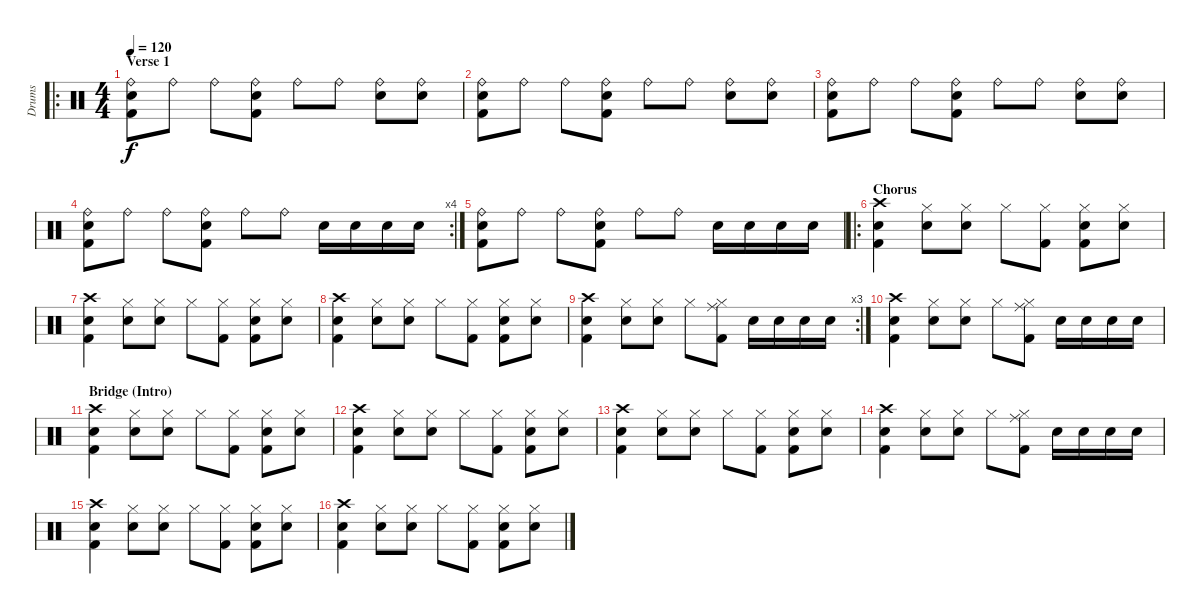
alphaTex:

\track ("Drums" "Drums") {instrument percussion}
\staff {score}
\articulation defaults
\ro
\ts (4 4)
\section ("" "Verse 1")
\tempo 120
\clef neutral
\ks c
("Ride (bell)" "Kick (hit) 2" "Snare (hit) 2").8{dy f} "Ride (bell)".8 "Ride (bell)".8 ("Ride (bell)" "Kick (hit) 2" "Snare (hit) 2").8 "Ride (bell)".8 "Ride (bell)".8 ("Ride (bell)" "Snare (hit) 2").8 ("Ride (bell)" "Snare (hit) 2").8 |
("Ride (bell)" "Kick (hit) 2" "Snare (hit) 2").8 "Ride (bell)".8 "Ride (bell)".8 ("Ride (bell)" "Kick (hit) 2" "Snare (hit) 2").8 "Ride (bell)".8 "Ride (bell)".8 ("Ride (bell)" "Snare (hit) 2").8 ("Ride (bell)" "Snare (hit) 2").8 |
("Ride (bell)" "Kick (hit) 2" "Snare (hit) 2").8 "Ride (bell)".8 "Ride (bell)".8 ("Ride (bell)" "Kick (hit) 2" "Snare (hit) 2").8 "Ride (bell)".8 "Ride (bell)".8 ("Ride (bell)" "Snare (hit) 2").8 ("Ride (bell)" "Snare (hit) 2").8 |
\rc 4
("Ride (bell)" "Kick (hit) 2" "Snare (hit) 2").8 "Ride (bell)".8 "Ride (bell)".8 ("Ride (bell)" "Kick (hit) 2" "Snare (hit) 2").8 "Ride (bell)".8 "Ride (bell)".8 "Snare (hit) 2".16 "Snare (hit) 2".16 "Snare (hit) 2".16 "Snare (hit) 2".16 |
("Ride (bell)" "Kick (hit) 2" "Snare (hit) 2").8 "Ride (bell)".8 "Ride (bell)".8 ("Ride (bell)" "Kick (hit) 2" "Snare (hit) 2").8 "Ride (bell)".8 "Ride (bell)".8 "Snare (hit) 2".16 "Snare (hit) 2".16 "Snare (hit) 2".16 "Snare (hit) 2".16 |
\ro
\section ("" "Chorus")
("Crash high (hit)" "Kick (hit) 2" "Snare (hit) 2").4 ("Hi-Hat (closed)" "Snare (hit) 2").8 ("Hi-Hat (closed)" "Snare (hit) 2").8 "Hi-Hat (closed)".8 ("Hi-Hat (closed)" "Kick (hit) 2").8 ("Hi-Hat (closed)" "Kick (hit) 2" "Snare (hit) 2").8 ("Hi-Hat (closed)" "Snare (hit) 2").8 |
("Crash high (hit)" "Kick (hit) 2" "Snare (hit) 2").4 ("Hi-Hat (closed)" "Snare (hit) 2").8 ("Hi-Hat (closed)" "Snare (hit) 2").8 "Hi-Hat (closed)".8 ("Hi-Hat (closed)" "Kick (hit) 2").8 ("Hi-Hat (closed)" "Kick (hit) 2" "Snare (hit) 2").8 ("Hi-Hat (closed)" "Snare (hit) 2").8 |
("Crash high (hit)" "Kick (hit) 2" "Snare (hit) 2").4 ("Hi-Hat (closed)" "Snare (hit) 2").8 ("Hi-Hat (closed)" "Snare (hit) 2").8 "Hi-Hat (closed)".8 ("Hi-Hat (closed)" "Kick (hit) 2").8 ("Hi-Hat (closed)" "Kick (hit) 2" "Snare (hit) 2").8 ("Hi-Hat (closed)" "Snare (hit) 2").8 |
\rc 3
("Crash high (hit)" "Kick (hit) 2" "Snare (hit) 2").4 ("Hi-Hat (closed)" "Snare (hit) 2").8 ("Hi-Hat (closed)" "Snare (hit) 2").8 "Hi-Hat (closed)".8 ("Ride (middle)" "Hi-Hat (closed)" "Kick (hit) 2").8 "Electric Snare (hit)".16 "Electric Snare (hit)".16 "Electric Snare (hit)".16 "Electric Snare (hit)".16 |
("Crash high (hit)" "Kick (hit) 2" "Snare (hit) 2").4 ("Hi-Hat (closed)" "Snare (hit) 2").8 ("Hi-Hat (closed)" "Snare (hit) 2").8 "Hi-Hat (closed)".8 ("Ride (middle)" "Hi-Hat (closed)" "Kick (hit) 2").8 "Electric Snare (hit)".16 "Electric Snare (hit)".16 "Electric Snare (hit)".16 "Electric Snare (hit)".16 |
\section ("" "Bridge (Intro)")
("Crash high (hit)" "Kick (hit) 2" "Snare (hit) 2").4 ("Hi-Hat (closed)" "Snare (hit) 2").8 ("Hi-Hat (closed)" "Snare (hit) 2").8 "Hi-Hat (closed)".8 ("Hi-Hat (closed)" "Kick (hit) 2").8 ("Hi-Hat (closed)" "Kick (hit) 2" "Snare (hit) 2").8 ("Hi-Hat (closed)" "Snare (hit) 2").8 |
("Crash high (hit)" "Kick (hit) 2" "Snare (hit) 2").4 ("Hi-Hat (closed)" "Snare (hit) 2").8 ("Hi-Hat (closed)" "Snare (hit) 2").8 "Hi-Hat (closed)".8 ("Hi-Hat (closed)" "Kick (hit) 2").8 ("Hi-Hat (closed)" "Kick (hit) 2" "Snare (hit) 2").8 ("Hi-Hat (closed)" "Snare (hit) 2").8 |
("Crash high (hit)" "Kick (hit) 2" "Snare (hit) 2").4 ("Hi-Hat (closed)" "Snare (hit) 2").8 ("Hi-Hat (closed)" "Snare (hit) 2").8 "Hi-Hat (closed)".8 ("Hi-Hat (closed)" "Kick (hit) 2").8 ("Hi-Hat (closed)" "Kick (hit) 2" "Snare (hit) 2").8 ("Hi-Hat (closed)" "Snare (hit) 2").8 |
("Crash high (hit)" "Kick (hit) 2" "Snare (hit) 2").4 ("Hi-Hat (closed)" "Snare (hit) 2").8 ("Hi-Hat (closed)" "Snare (hit) 2").8 "Hi-Hat (closed)".8 ("Ride (middle)" "Hi-Hat (closed)" "Kick (hit) 2").8 "Electric Snare (hit)".16 "Electric Snare (hit)".16 "Electric Snare (hit)".16 "Electric Snare (hit)".16 |
("Crash high (hit)" "Kick (hit) 2" "Snare (hit) 2").4 ("Hi-Hat (closed)" "Snare (hit) 2").8 ("Hi-Hat (closed)" "Snare (hit) 2").8 "Hi-Hat (closed)".8 ("Hi-Hat (closed)" "Kick (hit) 2").8 ("Hi-Hat (closed)" "Kick (hit) 2" "Snare (hit) 2").8 ("Hi-Hat (closed)" "Snare (hit) 2").8 |
("Crash high (hit)" "Kick (hit) 2" "Snare (hit) 2").4 ("Hi-Hat (closed)" "Snare (hit) 2").8 ("Hi-Hat (closed)" "Snare (hit) 2").8 "Hi-Hat (closed)".8 ("Hi-Hat (closed)" "Kick (hit) 2").8 ("Hi-Hat (closed)" "Kick (hit) 2" "Snare (hit) 2").8 ("Hi-Hat (closed)" "Snare (hit) 2").8
